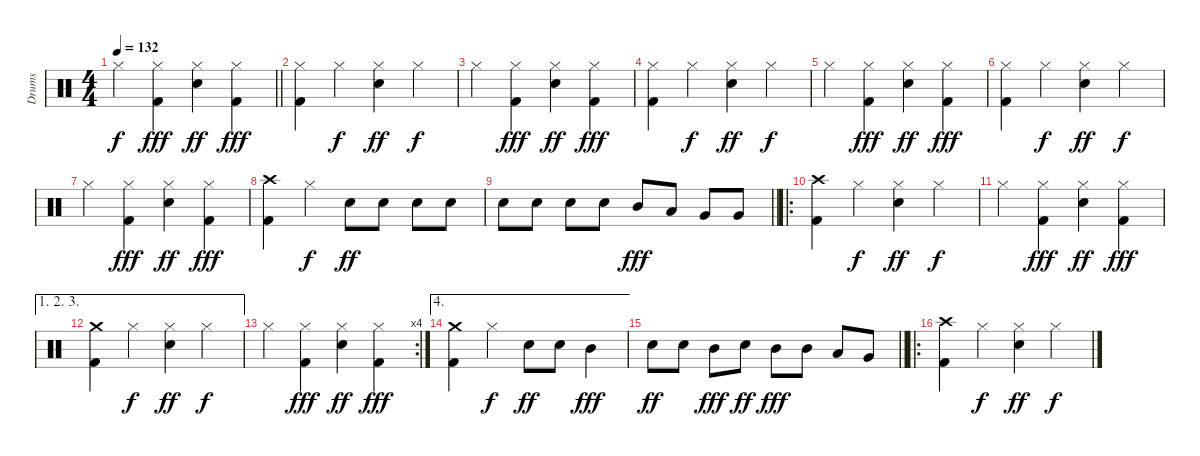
\track ("Drums" "Drums") {instrument percussion}
\staff {score}
\articulation defaults
\ts (4 4)
\tempo 132
\clef neutral
\barLineRight lightlight
\ks c "Hi-Hat (closed)".4{dy f}
("Hi-Hat (closed)" "Kick (hit) 2").4{dy fff} ("Hi-Hat (closed)" "Electric Snare (hit)").4{dy ff} ("Hi-Hat (closed)" "Kick (hit) 2").4{dy fff} |
("Hi-Hat (closed)" "Kick (hit) 2").4 "Hi-Hat (closed)".4{dy f} ("Hi-Hat (closed)" "Electric Snare (hit)").4{dy ff} "Hi-Hat (closed)".4{dy f} |
"Hi-Hat (closed)".4 ("Hi-Hat (closed)" "Kick (hit) 2").4{dy fff} ("Hi-Hat (closed)" "Electric Snare (hit)").4{dy ff} ("Hi-Hat (closed)" "Kick (hit) 2").4{dy fff} |
("Hi-Hat (closed)" "Kick (hit) 2").4 "Hi-Hat (closed)".4{dy f} ("Hi-Hat (closed)" "Electric Snare (hit)").4{dy ff} "Hi-Hat (closed)".4{dy f} |
"Hi-Hat (closed)".4 ("Hi-Hat (closed)" "Kick (hit) 2").4{dy fff} ("Hi-Hat (closed)" "Electric Snare (hit)").4{dy ff} ("Hi-Hat (closed)" "Kick (hit) 2").4{dy fff} |
("Hi-Hat (closed)" "Kick (hit) 2").4 "Hi-Hat (closed)".4{dy f} ("Hi-Hat (closed)" "Electric Snare (hit)").4{dy ff} "Hi-Hat (closed)".4{dy f} |
"Hi-Hat (closed)".4 ("Hi-Hat (closed)" "Kick (hit) 2").4{dy fff} ("Hi-Hat (closed)" "Electric Snare (hit)").4{dy ff} ("Hi-Hat (closed)" "Kick (hit) 2").4{dy fff} |
("Crash high (hit)" "Kick (hit) 2").4 "Hi-Hat (closed)".4{dy f} "Electric Snare (hit)".8{dy ff} "Electric Snare (hit)".8 "Electric Snare (hit)".8 "Electric Snare (hit)".8 |
\barLineRight lightlight "Electric Snare (hit)".8 "Electric Snare (hit)".8 "Electric Snare (hit)".8 "Electric Snare (hit)".8 "Mid Tom (hit)".8{dy fff} "Low Tom (hit)".8 "Very Low Tom (hit)".8 "Very Low Tom (hit)".8
|
\ro
("Crash high (hit)" "Kick (hit) 2").4 "Hi-Hat (closed)".4{dy f} ("Hi-Hat (closed)" "Electric Snare (hit)").4{dy ff} "Hi-Hat (closed)".4{dy f} |
"Hi-Hat (closed)".4 ("Hi-Hat (closed)" "Kick (hit) 2").4{dy fff} ("Hi-Hat (closed)" "Electric Snare (hit)").4{dy ff} ("Hi-Hat (closed)" "Kick (hit) 2").4{dy fff} |
\ae (1 2 3)
("Crash medium (hit)" "Kick (hit) 2").4 "Hi-Hat (closed)".4{dy f} ("Hi-Hat (closed)" "Electric Snare (hit)").4{dy ff} "Hi-Hat (closed)".4{dy f} |
\rc 4 "Hi-Hat (closed)".4
("Hi-Hat (closed)" "Kick (hit) 2").4{dy fff} ("Hi-Hat (closed)" "Electric Snare (hit)").4{dy ff} ("Hi-Hat (closed)" "Kick (hit) 2").4{dy fff} |
\ae 4
("Crash medium (hit)" "Kick (hit) 2").4 "Hi-Hat (closed)".4{dy f} "Electric Snare (hit)".8{dy ff} "Electric Snare (hit)".8 "Mid Tom (hit)".4{dy fff} |
\barLineRight lightlight "Electric Snare (hit)".8{dy ff} "Electric Snare (hit)".8 "Mid Tom (hit)".8{dy fff} "Electric Snare (hit)".8{dy ff} "Mid Tom (hit)".8{dy fff} "Mid Tom (hit)".8 "Low Tom (hit)".8 "Very Low Tom (hit)".8
|
\ro
("Crash high (hit)" "Kick (hit) 2").4 "Hi-Hat (closed)".4{dy f} ("Hi-Hat (closed)" "Electric Snare (hit)").4{dy ff} "Hi-Hat (closed)".4{dy f}
